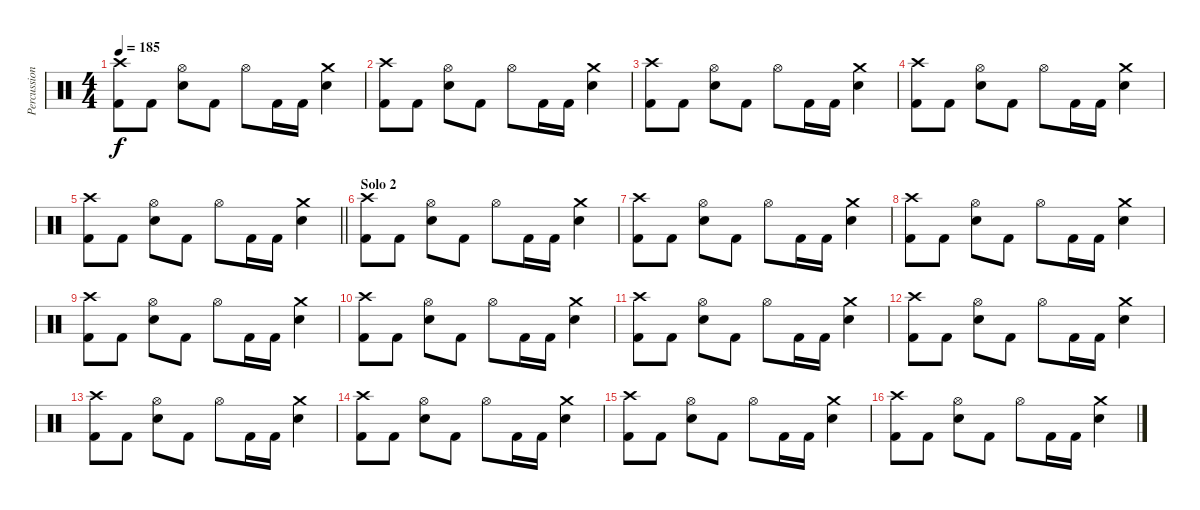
\track ("Percussioni" "Percussion") {instrument percussion}
\staff {score}
\articulation defaults
\ts (4 4)
\tempo 185
\clef neutral
\ks c
("Kick (hit) 2" "Crash high (hit)").8{dy f} "Kick (hit) 2".8 ("Snare (hit) 2" "Hi-Hat (open)").8 "Kick (hit) 2".8 "Hi-Hat (open)".8 "Kick (hit) 2".16 "Kick (hit) 2".16 ("Snare (hit) 2" "Crash medium (hit)").4 |
("Kick (hit) 2" "Crash high (hit)").8 "Kick (hit) 2".8 ("Snare (hit) 2" "Hi-Hat (open)").8 "Kick (hit) 2".8 "Hi-Hat (open)".8 "Kick (hit) 2".16 "Kick (hit) 2".16 ("Snare (hit) 2" "Crash medium (hit)").4 |
("Kick (hit) 2" "Crash high (hit)").8 "Kick (hit) 2".8 ("Snare (hit) 2" "Hi-Hat (open)").8 "Kick (hit) 2".8 "Hi-Hat (open)".8 "Kick (hit) 2".16 "Kick (hit) 2".16 ("Snare (hit) 2" "Crash medium (hit)").4 |
("Kick (hit) 2" "Crash high (hit)").8 "Kick (hit) 2".8 ("Snare (hit) 2" "Hi-Hat (open)").8 "Kick (hit) 2".8 "Hi-Hat (open)".8 "Kick (hit) 2".16 "Kick (hit) 2".16 ("Snare (hit) 2" "Crash medium (hit)").4 |
\barLineRight lightlight
("Kick (hit) 2" "Crash high (hit)").8 "Kick (hit) 2".8 ("Snare (hit) 2" "Hi-Hat (open)").8 "Kick (hit) 2".8 "Hi-Hat (open)".8 "Kick (hit) 2".16 "Kick (hit) 2".16 ("Snare (hit) 2" "Crash medium (hit)").4 |
\section ("" "Solo 2")
("Kick (hit) 2" "Crash high (hit)").8 "Kick (hit) 2".8 ("Snare (hit) 2" "Hi-Hat (open)").8 "Kick (hit) 2".8 "Hi-Hat (open)".8 "Kick (hit) 2".16 "Kick (hit) 2".16 ("Snare (hit) 2" "Crash medium (hit)").4 |
("Kick (hit) 2" "Crash high (hit)").8 "Kick (hit) 2".8 ("Snare (hit) 2" "Hi-Hat (open)").8 "Kick (hit) 2".8 "Hi-Hat (open)".8 "Kick (hit) 2".16 "Kick (hit) 2".16 ("Snare (hit) 2" "Crash medium (hit)").4 |
("Kick (hit) 2" "Crash high (hit)").8 "Kick (hit) 2".8 ("Snare (hit) 2" "Hi-Hat (open)").8 "Kick (hit) 2".8 "Hi-Hat (open)".8 "Kick (hit) 2".16 "Kick (hit) 2".16 ("Snare (hit) 2" "Crash medium (hit)").4 |
("Kick (hit) 2" "Crash high (hit)").8 "Kick (hit) 2".8 ("Snare (hit) 2" "Hi-Hat (open)").8 "Kick (hit) 2".8 "Hi-Hat (open)".8 "Kick (hit) 2".16 "Kick (hit) 2".16 ("Snare (hit) 2" "Crash medium (hit)").4 |
("Kick (hit) 2" "Crash high (hit)").8 "Kick (hit) 2".8 ("Snare (hit) 2" "Hi-Hat (open)").8 "Kick (hit) 2".8 "Hi-Hat (open)".8 "Kick (hit) 2".16 "Kick (hit) 2".16 ("Snare (hit) 2" "Crash medium (hit)").4 |
("Kick (hit) 2" "Crash high (hit)").8 "Kick (hit) 2".8 ("Snare (hit) 2" "Hi-Hat (open)").8 "Kick (hit) 2".8 "Hi-Hat (open)".8 "Kick (hit) 2".16 "Kick (hit) 2".16 ("Snare (hit) 2" "Crash medium (hit)").4 |
("Kick (hit) 2" "Crash high (hit)").8 "Kick (hit) 2".8 ("Snare (hit) 2" "Hi-Hat (open)").8 "Kick (hit) 2".8 "Hi-Hat (open)".8 "Kick (hit) 2".16 "Kick (hit) 2".16 ("Snare (hit) 2" "Crash medium (hit)").4 |
("Kick (hit) 2" "Crash high (hit)").8 "Kick (hit) 2".8 ("Snare (hit) 2" "Hi-Hat (open)").8 "Kick (hit) 2".8 "Hi-Hat (open)".8 "Kick (hit) 2".16 "Kick (hit) 2".16 ("Snare (hit) 2" "Crash medium (hit)").4 |
("Kick (hit) 2" "Crash high (hit)").8 "Kick (hit) 2".8 ("Snare (hit) 2" "Hi-Hat (open)").8 "Kick (hit) 2".8 "Hi-Hat (open)".8 "Kick (hit) 2".16 "Kick (hit) 2".16 ("Snare (hit) 2" "Crash medium (hit)").4 |
("Kick (hit) 2" "Crash high (hit)").8 "Kick (hit) 2".8 ("Snare (hit) 2" "Hi-Hat (open)").8 "Kick (hit) 2".8 "Hi-Hat (open)".8 "Kick (hit) 2".16 "Kick (hit) 2".16 ("Snare (hit) 2" "Crash medium (hit)").4 |
("Kick (hit) 2" "Crash high (hit)").8 "Kick (hit) 2".8 ("Snare (hit) 2" "Hi-Hat (open)").8 "Kick (hit) 2".8 "Hi-Hat (open)".8 "Kick (hit) 2".16 "Kick (hit) 2".16 ("Snare (hit) 2" "Crash medium (hit)").4
